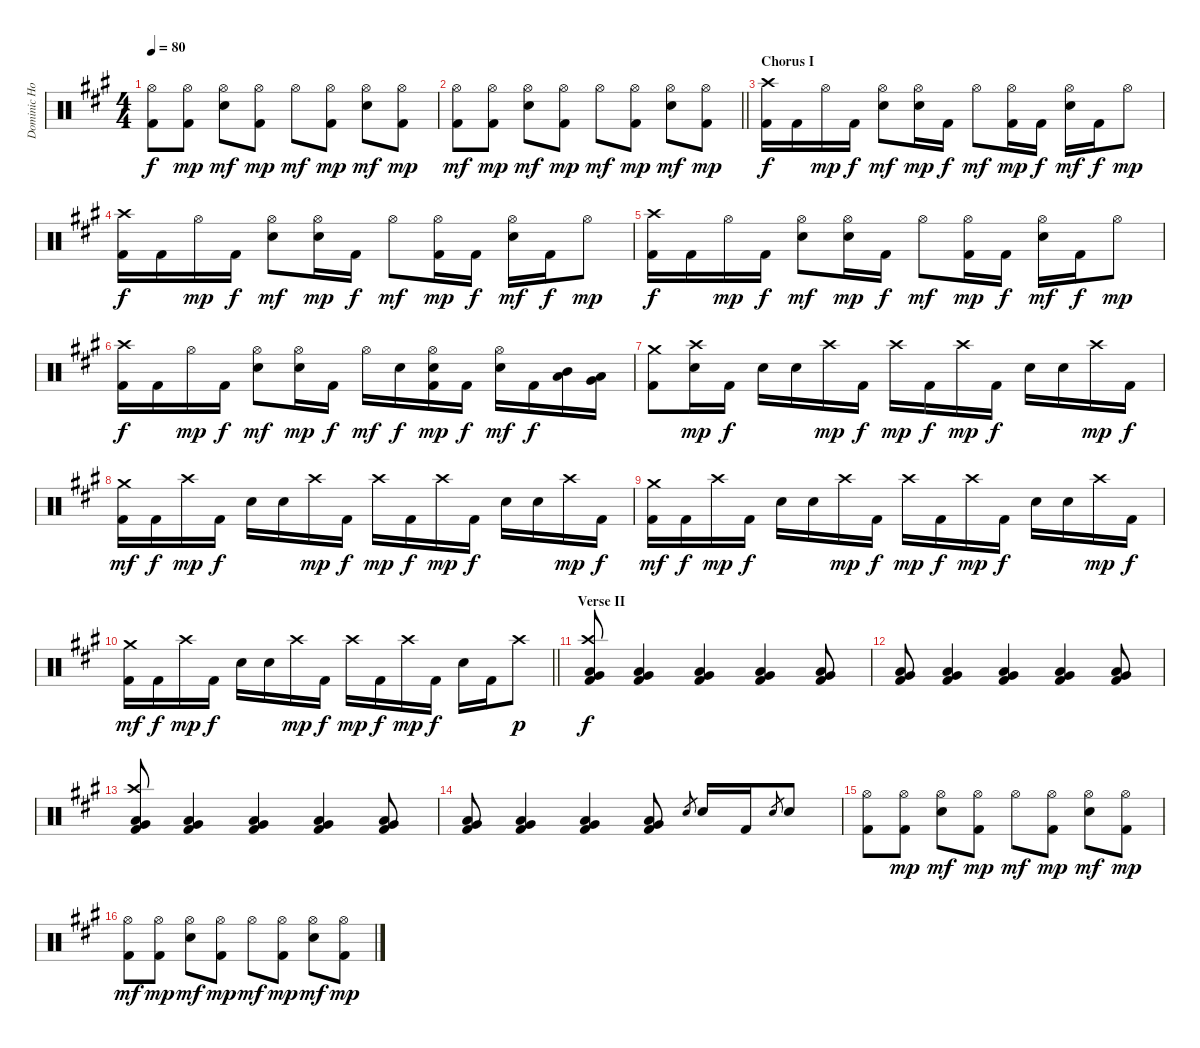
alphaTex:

\track ("Dominic Howard Drums" "Dominic Ho") {instrument percussion}
\staff {score}
\articulation defaults
\ts (4 4)
\tempo 80
\clef neutral
\ks a
("Hi-Hat (open)" "Kick (hit) 2").8{dy f} ("Hi-Hat (open)" "Kick (hit) 2").8{dy mp} ("Hi-Hat (open)" "Electric Snare (hit)").8{dy mf} ("Hi-Hat (open)" "Kick (hit) 2").8{dy mp} "Hi-Hat (open)".8{dy mf} ("Hi-Hat (open)" "Kick (hit) 2").8{dy mp} ("Hi-Hat (open)" "Electric Snare (hit)").8{dy mf} ("Hi-Hat (open)" "Kick (hit) 2").8{dy mp} |
\barLineRight lightlight
("Hi-Hat (open)" "Kick (hit) 2").8{dy mf} ("Hi-Hat (open)" "Kick (hit) 2").8{dy mp} ("Hi-Hat (open)" "Electric Snare (hit)").8{dy mf} ("Hi-Hat (open)" "Kick (hit) 2").8{dy mp} "Hi-Hat (open)".8{dy mf} ("Hi-Hat (open)" "Kick (hit) 2").8{dy mp} ("Hi-Hat (open)" "Electric Snare (hit)").8{dy mf} ("Hi-Hat (open)" "Kick (hit) 2").8{dy mp} |
\section ("" "Chorus I")
("Crash high (hit)" "Kick (hit) 2").16{dy f} "Kick (hit) 2".16 "Hi-Hat (open)".16{dy mp} "Kick (hit) 2".16{dy f} ("Hi-Hat (open)" "Electric Snare (hit)").8{dy mf} ("Hi-Hat (open)" "Electric Snare (hit)").16{dy mp} "Kick (hit) 2".16{dy f} "Hi-Hat (open)".8{dy mf} ("Hi-Hat (open)" "Kick (hit) 2").16{dy mp} "Kick (hit) 2".16{dy f} ("Hi-Hat (open)" "Electric Snare (hit)").16{dy mf} "Kick (hit) 2".16{dy f} "Hi-Hat (open)".8{dy mp} |
("Crash high (hit)" "Kick (hit) 2").16{dy f} "Kick (hit) 2".16 "Hi-Hat (open)".16{dy mp} "Kick (hit) 2".16{dy f} ("Hi-Hat (open)" "Electric Snare (hit)").8{dy mf} ("Hi-Hat (open)" "Electric Snare (hit)").16{dy mp} "Kick (hit) 2".16{dy f} "Hi-Hat (open)".8{dy mf} ("Hi-Hat (open)" "Kick (hit) 2").16{dy mp} "Kick (hit) 2".16{dy f} ("Hi-Hat (open)" "Electric Snare (hit)").16{dy mf} "Kick (hit) 2".16{dy f} "Hi-Hat (open)".8{dy mp} |
("Crash high (hit)" "Kick (hit) 2").16{dy f} "Kick (hit) 2".16 "Hi-Hat (open)".16{dy mp} "Kick (hit) 2".16{dy f} ("Hi-Hat (open)" "Electric Snare (hit)").8{dy mf} ("Hi-Hat (open)" "Electric Snare (hit)").16{dy mp} "Kick (hit) 2".16{dy f} "Hi-Hat (open)".8{dy mf} ("Hi-Hat (open)" "Kick (hit) 2").16{dy mp} "Kick (hit) 2".16{dy f} ("Hi-Hat (open)" "Electric Snare (hit)").16{dy mf} "Kick (hit) 2".16{dy f} "Hi-Hat (open)".8{dy mp} |
("Crash high (hit)" "Kick (hit) 2").16{dy f} "Kick (hit) 2".16 "Hi-Hat (open)".16{dy mp} "Kick (hit) 2".16{dy f} ("Hi-Hat (open)" "Electric Snare (hit)").8{dy mf} ("Hi-Hat (open)" "Electric Snare (hit)").16{dy mp} "Kick (hit) 2".16{dy f} "Hi-Hat (open)".16{dy mf} "Electric Snare (hit)".16{dy f} ("Hi-Hat (open)" "Electric Snare (hit)" "Kick (hit) 2").16{dy mp} "Kick (hit) 2".16{dy f} ("Hi-Hat (open)" "Electric Snare (hit)").16{dy mf} "Kick (hit) 2".16{dy f} ("Mid Tom (hit)" "Low Tom (hit)").16{bd 60} ("Low Tom (hit)" "Very Low Tom (hit)").16{bd 60} |
("Crash medium (hit)" "Kick (hit) 2").8 ("Crash high (hit)" "Electric Snare (hit)").16{dy mp} "Kick (hit) 2".16{dy f} "Electric Snare (hit)".16 "Electric Snare (hit)".16 "Crash high (hit)".16{dy mp} "Kick (hit) 2".16{dy f} "Crash high (hit)".16{dy mp} "Kick (hit) 2".16{dy f} "Crash high (hit)".16{dy mp} "Kick (hit) 2".16{dy f} "Electric Snare (hit)".16 "Electric Snare (hit)".16 "Crash high (hit)".16{dy mp} "Kick (hit) 2".16{dy f} |
("Crash medium (hit)" "Kick (hit) 2").16{dy mf} "Kick (hit) 2".16{dy f} "Crash high (hit)".16{dy mp} "Kick (hit) 2".16{dy f} "Electric Snare (hit)".16 "Electric Snare (hit)".16 "Crash high (hit)".16{dy mp} "Kick (hit) 2".16{dy f} "Crash high (hit)".16{dy mp} "Kick (hit) 2".16{dy f} "Crash high (hit)".16{dy mp} "Kick (hit) 2".16{dy f} "Electric Snare (hit)".16 "Electric Snare (hit)".16 "Crash high (hit)".16{dy mp} "Kick (hit) 2".16{dy f} |
("Crash medium (hit)" "Kick (hit) 2").16{dy mf} "Kick (hit) 2".16{dy f} "Crash high (hit)".16{dy mp} "Kick (hit) 2".16{dy f} "Electric Snare (hit)".16 "Electric Snare (hit)".16 "Crash high (hit)".16{dy mp} "Kick (hit) 2".16{dy f} "Crash high (hit)".16{dy mp} "Kick (hit) 2".16{dy f} "Crash high (hit)".16{dy mp} "Kick (hit) 2".16{dy f} "Electric Snare (hit)".16 "Electric Snare (hit)".16 "Crash high (hit)".16{dy mp} "Kick (hit) 2".16{dy f} |
\barLineRight lightlight
("Crash medium (hit)" "Kick (hit) 2").16{dy mf} "Kick (hit) 2".16{dy f} "Crash high (hit)".16{dy mp} "Kick (hit) 2".16{dy f} "Electric Snare (hit)".16 "Electric Snare (hit)".16 "Crash high (hit)".16{dy mp} "Kick (hit) 2".16{dy f} "Crash high (hit)".16{dy mp} "Kick (hit) 2".16{dy f} "Crash high (hit)".16{dy mp} "Kick (hit) 2".16{dy f} "Electric Snare (hit)".16 "Kick (hit) 2".16 "Crash high (hit)".8{dy p} |
\section ("" "Verse II")
("Crash high (hit)" "Low Floor Tom (hit)" "Very Low Tom (hit)" "Kick (hit) 2").8{bd 30 dy f} ("Low Floor Tom (hit)" "Very Low Tom (hit)" "Kick (hit) 2").4{bd 30} ("Low Floor Tom (hit)" "Very Low Tom (hit)" "Kick (hit) 2").4{bd 30} ("Low Floor Tom (hit)" "Very Low Tom (hit)" "Kick (hit) 2").4{bd 30} ("Low Floor Tom (hit)" "Very Low Tom (hit)" "Kick (hit) 2").8{bd 30} |
("Low Floor Tom (hit)" "Very Low Tom (hit)" "Kick (hit) 2").8{bd 30} ("Low Floor Tom (hit)" "Very Low Tom (hit)" "Kick (hit) 2").4{bd 30} ("Low Floor Tom (hit)" "Very Low Tom (hit)" "Kick (hit) 2").4{bd 30} ("Low Floor Tom (hit)" "Very Low Tom (hit)" "Kick (hit) 2").4{bd 30} ("Low Floor Tom (hit)" "Very Low Tom (hit)" "Kick (hit) 2").8{bd 30} |
("Crash high (hit)" "Low Floor Tom (hit)" "Very Low Tom (hit)" "Kick (hit) 2").8{bd 30} ("Low Floor Tom (hit)" "Very Low Tom (hit)" "Kick (hit) 2").4{bd 30} ("Low Floor Tom (hit)" "Very Low Tom (hit)" "Kick (hit) 2").4{bd 30} ("Low Floor Tom (hit)" "Very Low Tom (hit)" "Kick (hit) 2").4{bd 30} ("Low Floor Tom (hit)" "Very Low Tom (hit)" "Kick (hit) 2").8{bd 30} |
("Low Floor Tom (hit)" "Very Low Tom (hit)" "Kick (hit) 2").8{bd 30} ("Low Floor Tom (hit)" "Very Low Tom (hit)" "Kick (hit) 2").4{bd 60} ("Low Floor Tom (hit)" "Very Low Tom (hit)" "Kick (hit) 2").4{bd 60} ("Low Floor Tom (hit)" "Very Low Tom (hit)" "Kick (hit) 2").8{bd 60} "Electric Snare (hit)".8{gr} "Electric Snare (hit)".16 "Kick (hit) 2".16 "Electric Snare (hit)".8{gr} "Electric Snare (hit)".8 |
("Hi-Hat (open)" "Kick (hit) 2").8 ("Hi-Hat (open)" "Kick (hit) 2").8{dy mp} ("Hi-Hat (open)" "Electric Snare (hit)").8{dy mf} ("Hi-Hat (open)" "Kick (hit) 2").8{dy mp} "Hi-Hat (open)".8{dy mf} ("Hi-Hat (open)" "Kick (hit) 2").8{dy mp} ("Hi-Hat (open)" "Electric Snare (hit)").8{dy mf} ("Hi-Hat (open)" "Kick (hit) 2").8{dy mp} |
("Hi-Hat (open)" "Kick (hit) 2").8{dy mf} ("Hi-Hat (open)" "Kick (hit) 2").8{dy mp} ("Hi-Hat (open)" "Electric Snare (hit)").8{dy mf} ("Hi-Hat (open)" "Kick (hit) 2").8{dy mp} "Hi-Hat (open)".8{dy mf} ("Hi-Hat (open)" "Kick (hit) 2").8{dy mp} ("Hi-Hat (open)" "Electric Snare (hit)").8{dy mf} ("Hi-Hat (open)" "Kick (hit) 2").8{dy mp}
